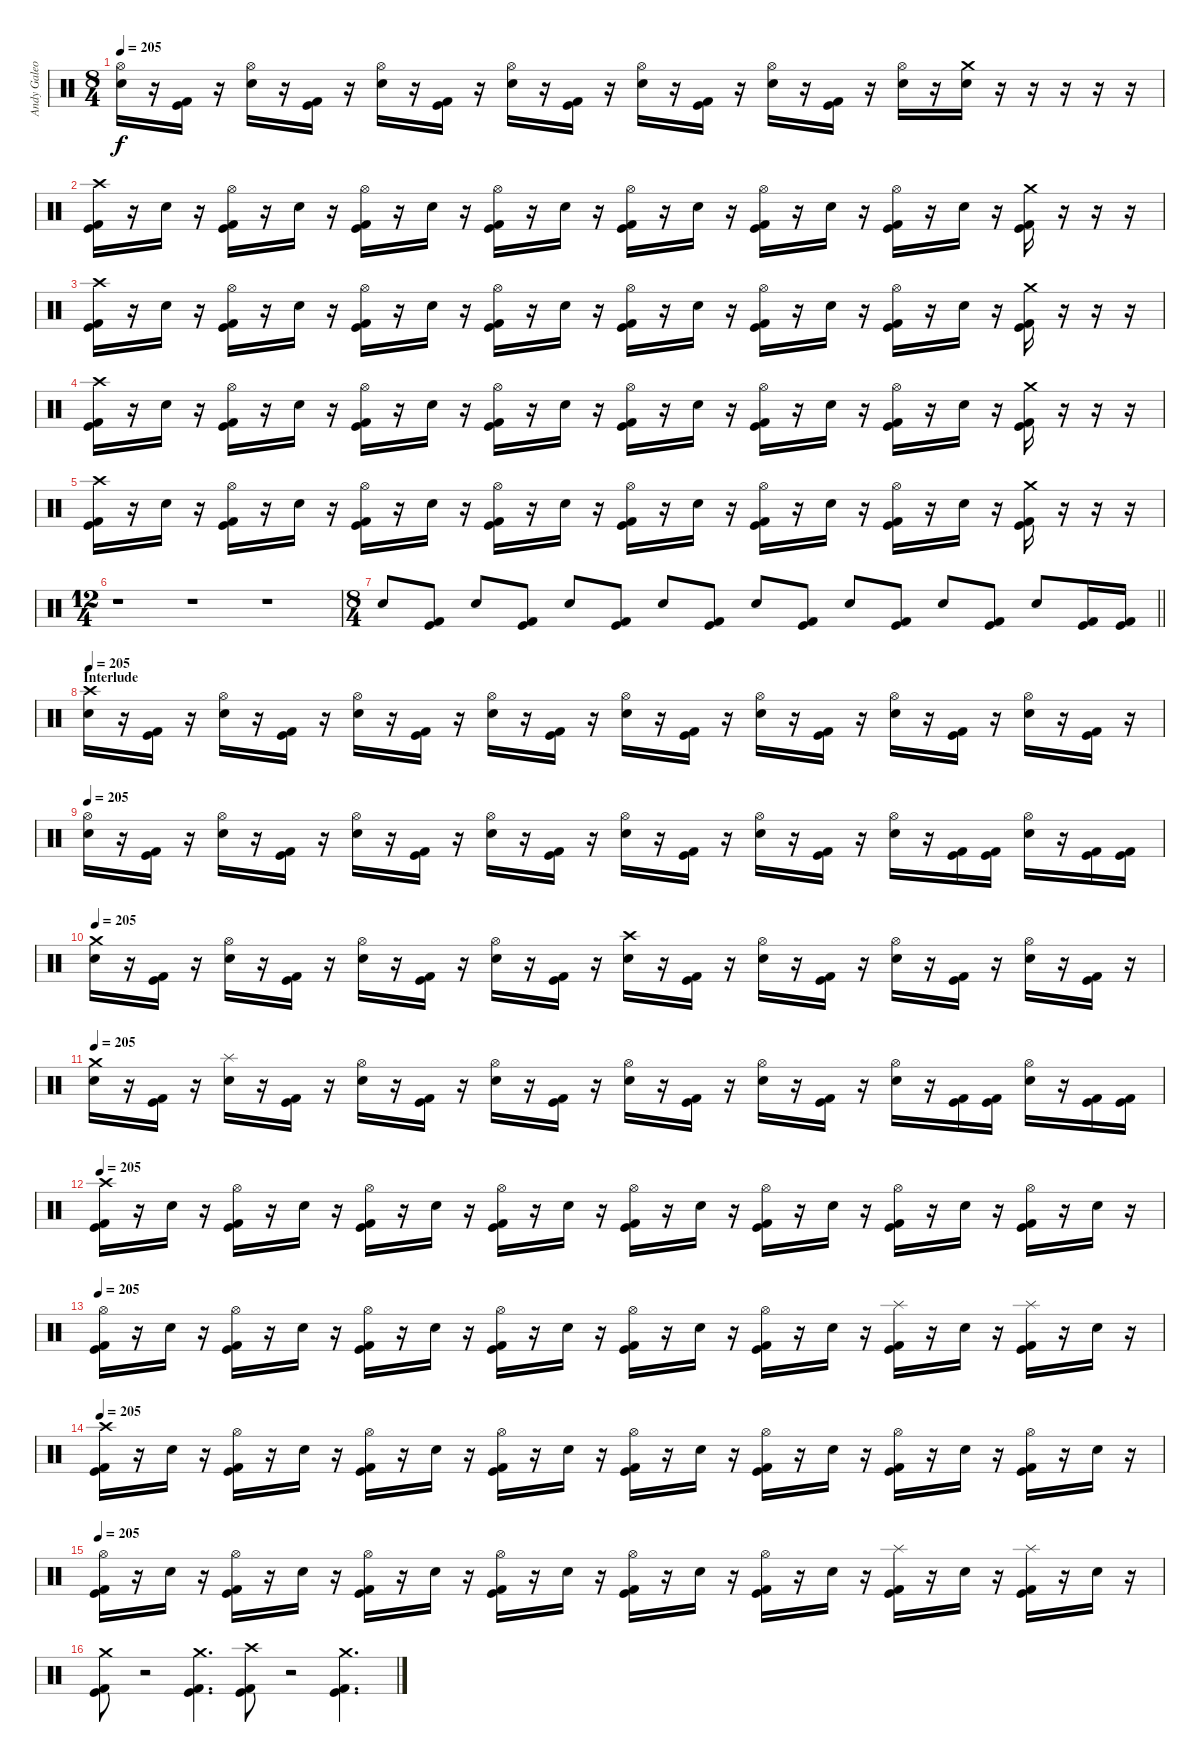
\track ("Andy Galeon - Drums" "Andy Galeo") {instrument percussion}
\staff {score}
\articulation defaults
\ts (8 4)
\tempo 205
\clef neutral
\ks c
("Hi-Hat (open)" "Electric Snare (hit)").16{dy f} r.16 ("Kick (hit) 2" "Kick (hit)").16 r.16 ("Hi-Hat (open)" "Electric Snare (hit)").16 r.16 ("Kick (hit) 2" "Kick (hit)").16 r.16 ("Hi-Hat (open)" "Electric Snare (hit)").16 r.16 ("Kick (hit) 2" "Kick (hit)").16 r.16 ("Hi-Hat (open)" "Electric Snare (hit)").16 r.16 ("Kick (hit) 2" "Kick (hit)").16 r.16 ("Hi-Hat (open)" "Electric Snare (hit)").16 r.16 ("Kick (hit) 2" "Kick (hit)").16 r.16 ("Hi-Hat (open)" "Electric Snare (hit)").16 r.16 ("Kick (hit) 2" "Kick (hit)").16 r.16 ("Hi-Hat (open)" "Electric Snare (hit)").16 r.16 ("Crash medium (hit)" "Electric Snare (hit)").16 r.16 r.16 r.16 r.16 r.16 |
("Crash high (hit)" "Kick (hit) 2" "Kick (hit)").16 r.16 "Electric Snare (hit)".16 r.16 ("Hi-Hat (open)" "Kick (hit) 2" "Kick (hit)").16 r.16 "Electric Snare (hit)".16 r.16 ("Hi-Hat (open)" "Kick (hit) 2" "Kick (hit)").16 r.16 "Electric Snare (hit)".16 r.16 ("Hi-Hat (open)" "Kick (hit) 2" "Kick (hit)").16 r.16 "Electric Snare (hit)".16 r.16 ("Hi-Hat (open)" "Kick (hit) 2" "Kick (hit)").16 r.16 "Electric Snare (hit)".16 r.16 ("Hi-Hat (open)" "Kick (hit) 2" "Kick (hit)").16 r.16 "Electric Snare (hit)".16 r.16 ("Hi-Hat (open)" "Kick (hit) 2" "Kick (hit)").16 r.16 "Electric Snare (hit)".16 r.16 ("Crash medium (hit)" "Kick (hit)" "Kick (hit) 2").16 r.16 r.16 r.16 |
("Crash high (hit)" "Kick (hit) 2" "Kick (hit)").16 r.16 "Electric Snare (hit)".16 r.16 ("Hi-Hat (open)" "Kick (hit) 2" "Kick (hit)").16 r.16 "Electric Snare (hit)".16 r.16 ("Hi-Hat (open)" "Kick (hit) 2" "Kick (hit)").16 r.16 "Electric Snare (hit)".16 r.16 ("Hi-Hat (open)" "Kick (hit) 2" "Kick (hit)").16 r.16 "Electric Snare (hit)".16 r.16 ("Hi-Hat (open)" "Kick (hit) 2" "Kick (hit)").16 r.16 "Electric Snare (hit)".16 r.16 ("Hi-Hat (open)" "Kick (hit) 2" "Kick (hit)").16 r.16 "Electric Snare (hit)".16 r.16 ("Hi-Hat (open)" "Kick (hit) 2" "Kick (hit)").16 r.16 "Electric Snare (hit)".16 r.16 ("Crash medium (hit)" "Kick (hit)" "Kick (hit) 2").16 r.16 r.16 r.16 |
("Crash high (hit)" "Kick (hit) 2" "Kick (hit)").16 r.16 "Electric Snare (hit)".16 r.16 ("Hi-Hat (open)" "Kick (hit) 2" "Kick (hit)").16 r.16 "Electric Snare (hit)".16 r.16 ("Hi-Hat (open)" "Kick (hit) 2" "Kick (hit)").16 r.16 "Electric Snare (hit)".16 r.16 ("Hi-Hat (open)" "Kick (hit) 2" "Kick (hit)").16 r.16 "Electric Snare (hit)".16 r.16 ("Hi-Hat (open)" "Kick (hit) 2" "Kick (hit)").16 r.16 "Electric Snare (hit)".16 r.16 ("Hi-Hat (open)" "Kick (hit) 2" "Kick (hit)").16 r.16 "Electric Snare (hit)".16 r.16 ("Hi-Hat (open)" "Kick (hit) 2" "Kick (hit)").16 r.16 "Electric Snare (hit)".16 r.16 ("Crash medium (hit)" "Kick (hit)" "Kick (hit) 2").16 r.16 r.16 r.16 |
("Crash high (hit)" "Kick (hit) 2" "Kick (hit)").16 r.16 "Electric Snare (hit)".16 r.16 ("Hi-Hat (open)" "Kick (hit) 2" "Kick (hit)").16 r.16 "Electric Snare (hit)".16 r.16 ("Hi-Hat (open)" "Kick (hit) 2" "Kick (hit)").16 r.16 "Electric Snare (hit)".16 r.16 ("Hi-Hat (open)" "Kick (hit) 2" "Kick (hit)").16 r.16 "Electric Snare (hit)".16 r.16 ("Hi-Hat (open)" "Kick (hit) 2" "Kick (hit)").16 r.16 "Electric Snare (hit)".16 r.16 ("Hi-Hat (open)" "Kick (hit) 2" "Kick (hit)").16 r.16 "Electric Snare (hit)".16 r.16 ("Hi-Hat (open)" "Kick (hit) 2" "Kick (hit)").16 r.16 "Electric Snare (hit)".16 r.16 ("Crash medium (hit)" "Kick (hit)" "Kick (hit) 2").16 r.16 r.16 r.16 |
\ts (12 4)
r.1 r.1 r.1 |
\ts (8 4)
\barLineRight lightlight "Electric Snare (hit)".8
("Kick (hit) 2" "Kick (hit)").8 "Electric Snare (hit)".8 ("Kick (hit) 2" "Kick (hit)").8 "Electric Snare (hit)".8 ("Kick (hit) 2" "Kick (hit)").8 "Electric Snare (hit)".8 ("Kick (hit) 2" "Kick (hit)").8 "Electric Snare (hit)".8 ("Kick (hit) 2" "Kick (hit)").8 "Electric Snare (hit)".8 ("Kick (hit) 2" "Kick (hit)").8 "Electric Snare (hit)".8 ("Kick (hit) 2" "Kick (hit)").8 "Electric Snare (hit)".8 ("Kick (hit) 2" "Kick (hit)").16 ("Kick (hit)" "Kick (hit) 2").16 |
\section ("" "Interlude")
\tempo 205
("Crash high (hit)" "Electric Snare (hit)").16 r.16 ("Kick (hit) 2" "Kick (hit)").16 r.16 ("Hi-Hat (open)" "Electric Snare (hit)").16 r.16 ("Kick (hit) 2" "Kick (hit)").16 r.16 ("Hi-Hat (open)" "Electric Snare (hit)").16 r.16 ("Kick (hit) 2" "Kick (hit)").16 r.16 ("Hi-Hat (open)" "Electric Snare (hit)").16 r.16 ("Kick (hit) 2" "Kick (hit)").16 r.16 ("Hi-Hat (open)" "Electric Snare (hit)").16 r.16 ("Kick (hit) 2" "Kick (hit)").16 r.16 ("Hi-Hat (open)" "Electric Snare (hit)").16 r.16 ("Kick (hit) 2" "Kick (hit)").16 r.16 ("Hi-Hat (open)" "Electric Snare (hit)").16 r.16 ("Kick (hit) 2" "Kick (hit)").16 r.16 ("Hi-Hat (open)" "Electric Snare (hit)").16 r.16 ("Kick (hit) 2" "Kick (hit)").16 r.16 |
\tempo 205
("Hi-Hat (open)" "Electric Snare (hit)").16 r.16 ("Kick (hit) 2" "Kick (hit)").16 r.16 ("Hi-Hat (open)" "Electric Snare (hit)").16 r.16 ("Kick (hit) 2" "Kick (hit)").16 r.16 ("Hi-Hat (open)" "Electric Snare (hit)").16 r.16 ("Kick (hit) 2" "Kick (hit)").16 r.16 ("Hi-Hat (open)" "Electric Snare (hit)").16 r.16 ("Kick (hit) 2" "Kick (hit)").16 r.16 ("Hi-Hat (open)" "Electric Snare (hit)").16 r.16 ("Kick (hit) 2" "Kick (hit)").16 r.16 ("Hi-Hat (open)" "Electric Snare (hit)").16 r.16 ("Kick (hit) 2" "Kick (hit)").16 r.16 ("Hi-Hat (open)" "Electric Snare (hit)").16 r.16 ("Kick (hit) 2" "Kick (hit)").16 ("Kick (hit) 2" "Kick (hit)").16 ("Hi-Hat (open)" "Electric Snare (hit)").16 r.16 ("Kick (hit) 2" "Kick (hit)").16 ("Kick (hit) 2" "Kick (hit)").16 |
\tempo 205
("Crash medium (hit)" "Electric Snare (hit)").16 r.16 ("Kick (hit) 2" "Kick (hit)").16 r.16 ("Hi-Hat (open)" "Electric Snare (hit)").16 r.16 ("Kick (hit) 2" "Kick (hit)").16 r.16 ("Hi-Hat (open)" "Electric Snare (hit)").16 r.16 ("Kick (hit) 2" "Kick (hit)").16 r.16 ("Hi-Hat (open)" "Electric Snare (hit)").16 r.16 ("Kick (hit) 2" "Kick (hit)").16 r.16 ("Crash high (hit)" "Electric Snare (hit)").16 r.16 ("Kick (hit) 2" "Kick (hit)").16 r.16 ("Hi-Hat (open)" "Electric Snare (hit)").16 r.16 ("Kick (hit) 2" "Kick (hit)").16 r.16 ("Hi-Hat (open)" "Electric Snare (hit)").16 r.16 ("Kick (hit) 2" "Kick (hit)").16 r.16 ("Hi-Hat (open)" "Electric Snare (hit)").16 r.16 ("Kick (hit) 2" "Kick (hit)").16 r.16 |
\tempo 205
("Crash medium (hit)" "Electric Snare (hit)").16 r.16 ("Kick (hit) 2" "Kick (hit)").16 r.16 ("Splash (hit)" "Electric Snare (hit)").16 r.16 ("Kick (hit) 2" "Kick (hit)").16 r.16 ("Hi-Hat (open)" "Electric Snare (hit)").16 r.16 ("Kick (hit) 2" "Kick (hit)").16 r.16 ("Hi-Hat (open)" "Electric Snare (hit)").16 r.16 ("Kick (hit) 2" "Kick (hit)").16 r.16 ("Hi-Hat (open)" "Electric Snare (hit)").16 r.16 ("Kick (hit) 2" "Kick (hit)").16 r.16 ("Hi-Hat (open)" "Electric Snare (hit)").16 r.16 ("Kick (hit) 2" "Kick (hit)").16 r.16 ("Hi-Hat (open)" "Electric Snare (hit)").16 r.16 ("Kick (hit) 2" "Kick (hit)").16 ("Kick (hit) 2" "Kick (hit)").16 ("Hi-Hat (open)" "Electric Snare (hit)").16 r.16 ("Kick (hit) 2" "Kick (hit)").16 ("Kick (hit) 2" "Kick (hit)").16 |
\tempo 205
("Crash high (hit)" "Kick (hit) 2" "Kick (hit)").16 r.16 "Electric Snare (hit)".16 r.16 ("Hi-Hat (open)" "Kick (hit) 2" "Kick (hit)").16 r.16 "Electric Snare (hit)".16 r.16 ("Hi-Hat (open)" "Kick (hit) 2" "Kick (hit)").16 r.16 "Electric Snare (hit)".16 r.16 ("Hi-Hat (open)" "Kick (hit) 2" "Kick (hit)").16 r.16 "Electric Snare (hit)".16 r.16 ("Hi-Hat (open)" "Kick (hit) 2" "Kick (hit)").16 r.16 "Electric Snare (hit)".16 r.16 ("Hi-Hat (open)" "Kick (hit) 2" "Kick (hit)").16 r.16 "Electric Snare (hit)".16 r.16 ("Hi-Hat (open)" "Kick (hit) 2" "Kick (hit)").16 r.16 "Electric Snare (hit)".16 r.16 ("Hi-Hat (open)" "Kick (hit)" "Kick (hit) 2").16 r.16 "Electric Snare (hit)".16 r.16 |
\tempo 205
("Hi-Hat (open)" "Kick (hit) 2" "Kick (hit)").16 r.16 "Electric Snare (hit)".16 r.16 ("Hi-Hat (open)" "Kick (hit) 2" "Kick (hit)").16 r.16 "Electric Snare (hit)".16 r.16 ("Hi-Hat (open)" "Kick (hit) 2" "Kick (hit)").16 r.16 "Electric Snare (hit)".16 r.16 ("Hi-Hat (open)" "Kick (hit) 2" "Kick (hit)").16 r.16 "Electric Snare (hit)".16 r.16 ("Hi-Hat (open)" "Kick (hit) 2" "Kick (hit)").16 r.16 "Electric Snare (hit)".16 r.16 ("Hi-Hat (open)" "Kick (hit) 2" "Kick (hit)").16 r.16 "Electric Snare (hit)".16 r.16 ("Splash (hit)" "Kick (hit) 2" "Kick (hit)").16 r.16 "Electric Snare (hit)".16 r.16 ("Splash (hit)" "Kick (hit)" "Kick (hit) 2").16 r.16 "Electric Snare (hit)".16 r.16 |
\tempo 205
("Crash high (hit)" "Kick (hit) 2" "Kick (hit)").16 r.16 "Electric Snare (hit)".16 r.16 ("Hi-Hat (open)" "Kick (hit) 2" "Kick (hit)").16 r.16 "Electric Snare (hit)".16 r.16 ("Hi-Hat (open)" "Kick (hit) 2" "Kick (hit)").16 r.16 "Electric Snare (hit)".16 r.16 ("Hi-Hat (open)" "Kick (hit) 2" "Kick (hit)").16 r.16 "Electric Snare (hit)".16 r.16 ("Hi-Hat (open)" "Kick (hit) 2" "Kick (hit)").16 r.16 "Electric Snare (hit)".16 r.16 ("Hi-Hat (open)" "Kick (hit) 2" "Kick (hit)").16 r.16 "Electric Snare (hit)".16 r.16 ("Hi-Hat (open)" "Kick (hit) 2" "Kick (hit)").16 r.16 "Electric Snare (hit)".16 r.16 ("Hi-Hat (open)" "Kick (hit)" "Kick (hit) 2").16 r.16 "Electric Snare (hit)".16 r.16 |
\tempo 205
("Hi-Hat (open)" "Kick (hit) 2" "Kick (hit)").16 r.16 "Electric Snare (hit)".16 r.16 ("Hi-Hat (open)" "Kick (hit) 2" "Kick (hit)").16 r.16 "Electric Snare (hit)".16 r.16 ("Hi-Hat (open)" "Kick (hit) 2" "Kick (hit)").16 r.16 "Electric Snare (hit)".16 r.16 ("Hi-Hat (open)" "Kick (hit) 2" "Kick (hit)").16 r.16 "Electric Snare (hit)".16 r.16 ("Hi-Hat (open)" "Kick (hit) 2" "Kick (hit)").16 r.16 "Electric Snare (hit)".16 r.16 ("Hi-Hat (open)" "Kick (hit) 2" "Kick (hit)").16 r.16 "Electric Snare (hit)".16 r.16 ("Splash (hit)" "Kick (hit) 2" "Kick (hit)").16 r.16 "Electric Snare (hit)".16 r.16 ("Splash (hit)" "Kick (hit)" "Kick (hit) 2").16 r.16 "Electric Snare (hit)".16 r.16 |
("Crash medium (hit)" "Kick (hit) 2" "Kick (hit)").8 r.2 ("Crash medium (hit)" "Kick (hit)" "Kick (hit) 2").4{d} ("Crash high (hit)" "Kick (hit) 2" "Kick (hit)").8 r.2 ("Crash medium (hit)" "Kick (hit) 2" "Kick (hit)").4{d}
